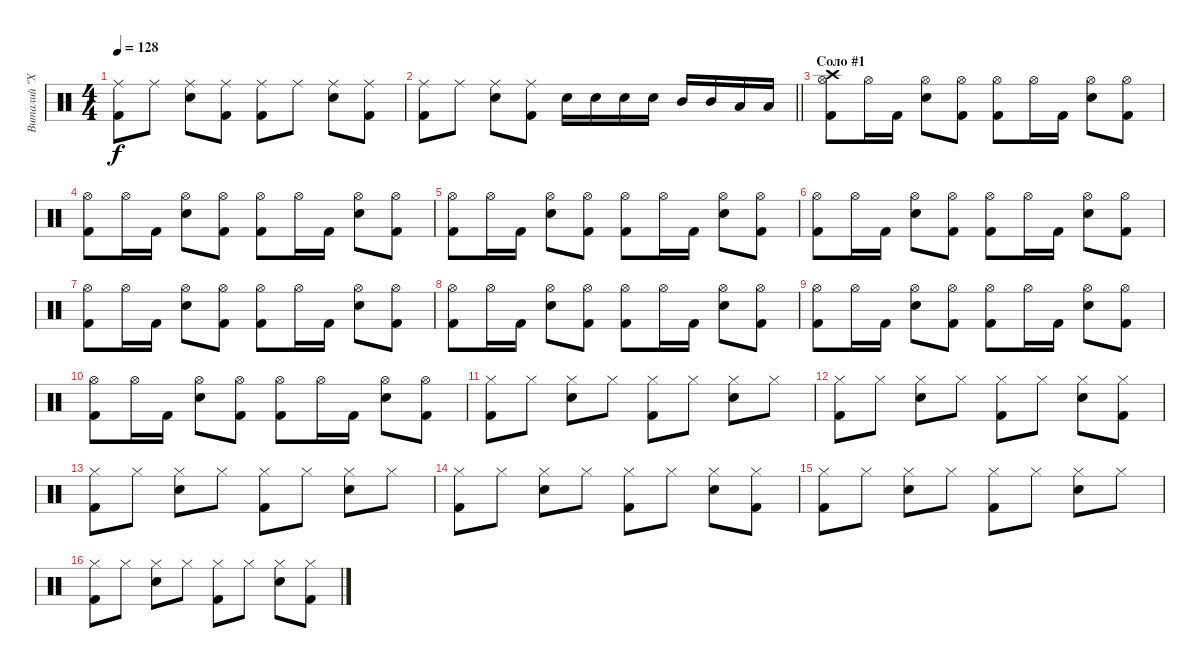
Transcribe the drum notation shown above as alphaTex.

\track ("Виталий \"Хамер\" Лядов" "Виталий \"Х") {instrument percussion}
\staff {score}
\articulation defaults
\ts (4 4)
\tempo 128
\clef neutral
\ks c
("Kick (hit) 2" "Ride (middle)").8{dy f} "Ride (middle)".8 ("Electric Snare (hit)" "Ride (middle)").8 ("Kick (hit) 2" "Ride (middle)").8 ("Kick (hit) 2" "Ride (middle)").8 "Ride (middle)".8 ("Electric Snare (hit)" "Ride (middle)").8 ("Kick (hit) 2" "Ride (middle)").8 |
\barLineRight lightlight
("Kick (hit) 2" "Ride (middle)").8 "Ride (middle)".8 ("Electric Snare (hit)" "Ride (middle)").8 ("Kick (hit) 2" "Ride (middle)").8 "Electric Snare (hit)".16 "Electric Snare (hit)".16 "Electric Snare (hit)".16 "Electric Snare (hit)".16 "Mid Tom (hit)".16 "Mid Tom (hit)".16 "Low Tom (hit)".16 "Low Tom (hit)".16 |
\section ("" "Соло #1")
("Kick (hit) 2" "Hi-Hat (open)" "Crash high (hit)").8 "Hi-Hat (open)".16 "Kick (hit) 2".16 ("Electric Snare (hit)" "Hi-Hat (open)").8 ("Kick (hit) 2" "Hi-Hat (open)").8 ("Kick (hit) 2" "Hi-Hat (open)").8 "Hi-Hat (open)".16 "Kick (hit) 2".16 ("Electric Snare (hit)" "Hi-Hat (open)").8 ("Kick (hit) 2" "Hi-Hat (open)").8 |
("Kick (hit) 2" "Hi-Hat (open)").8 "Hi-Hat (open)".16 "Kick (hit) 2".16 ("Electric Snare (hit)" "Hi-Hat (open)").8 ("Kick (hit) 2" "Hi-Hat (open)").8 ("Kick (hit) 2" "Hi-Hat (open)").8 "Hi-Hat (open)".16 "Kick (hit) 2".16 ("Electric Snare (hit)" "Hi-Hat (open)").8 ("Kick (hit) 2" "Hi-Hat (open)").8 |
("Kick (hit) 2" "Hi-Hat (open)").8 "Hi-Hat (open)".16 "Kick (hit) 2".16 ("Electric Snare (hit)" "Hi-Hat (open)").8 ("Kick (hit) 2" "Hi-Hat (open)").8 ("Kick (hit) 2" "Hi-Hat (open)").8 "Hi-Hat (open)".16 "Kick (hit) 2".16 ("Electric Snare (hit)" "Hi-Hat (open)").8 ("Kick (hit) 2" "Hi-Hat (open)").8 |
("Kick (hit) 2" "Hi-Hat (open)").8 "Hi-Hat (open)".16 "Kick (hit) 2".16 ("Electric Snare (hit)" "Hi-Hat (open)").8 ("Kick (hit) 2" "Hi-Hat (open)").8 ("Kick (hit) 2" "Hi-Hat (open)").8 "Hi-Hat (open)".16 "Kick (hit) 2".16 ("Electric Snare (hit)" "Hi-Hat (open)").8 ("Kick (hit) 2" "Hi-Hat (open)").8 |
("Kick (hit) 2" "Hi-Hat (open)").8 "Hi-Hat (open)".16 "Kick (hit) 2".16 ("Electric Snare (hit)" "Hi-Hat (open)").8 ("Kick (hit) 2" "Hi-Hat (open)").8 ("Kick (hit) 2" "Hi-Hat (open)").8 "Hi-Hat (open)".16 "Kick (hit) 2".16 ("Electric Snare (hit)" "Hi-Hat (open)").8 ("Kick (hit) 2" "Hi-Hat (open)").8 |
("Kick (hit) 2" "Hi-Hat (open)").8 "Hi-Hat (open)".16 "Kick (hit) 2".16 ("Electric Snare (hit)" "Hi-Hat (open)").8 ("Kick (hit) 2" "Hi-Hat (open)").8 ("Kick (hit) 2" "Hi-Hat (open)").8 "Hi-Hat (open)".16 "Kick (hit) 2".16 ("Electric Snare (hit)" "Hi-Hat (open)").8 ("Kick (hit) 2" "Hi-Hat (open)").8 |
("Kick (hit) 2" "Hi-Hat (open)").8 "Hi-Hat (open)".16 "Kick (hit) 2".16 ("Electric Snare (hit)" "Hi-Hat (open)").8 ("Kick (hit) 2" "Hi-Hat (open)").8 ("Kick (hit) 2" "Hi-Hat (open)").8 "Hi-Hat (open)".16 "Kick (hit) 2".16 ("Electric Snare (hit)" "Hi-Hat (open)").8 ("Kick (hit) 2" "Hi-Hat (open)").8 |
("Kick (hit) 2" "Hi-Hat (open)").8 "Hi-Hat (open)".16 "Kick (hit) 2".16 ("Electric Snare (hit)" "Hi-Hat (open)").8 ("Kick (hit) 2" "Hi-Hat (open)").8 ("Kick (hit) 2" "Hi-Hat (open)").8 "Hi-Hat (open)".16 "Kick (hit) 2".16 ("Electric Snare (hit)" "Hi-Hat (open)").8 ("Kick (hit) 2" "Hi-Hat (open)").8 |
("Kick (hit) 2" "Hi-Hat (closed)").8 "Hi-Hat (closed)".8 ("Electric Snare (hit)" "Hi-Hat (closed)").8 "Hi-Hat (closed)".8 ("Kick (hit) 2" "Hi-Hat (closed)").8 "Hi-Hat (closed)".8 ("Electric Snare (hit)" "Hi-Hat (closed)").8 "Hi-Hat (closed)".8 |
("Kick (hit) 2" "Hi-Hat (closed)").8 "Hi-Hat (closed)".8 ("Electric Snare (hit)" "Hi-Hat (closed)").8 "Hi-Hat (closed)".8 ("Kick (hit) 2" "Hi-Hat (closed)").8 "Hi-Hat (closed)".8 ("Electric Snare (hit)" "Hi-Hat (closed)").8 ("Kick (hit) 2" "Hi-Hat (closed)").8 |
("Kick (hit) 2" "Hi-Hat (closed)").8 "Hi-Hat (closed)".8 ("Electric Snare (hit)" "Hi-Hat (closed)").8 "Hi-Hat (closed)".8 ("Kick (hit) 2" "Hi-Hat (closed)").8 "Hi-Hat (closed)".8 ("Electric Snare (hit)" "Hi-Hat (closed)").8 "Hi-Hat (closed)".8 |
("Kick (hit) 2" "Hi-Hat (closed)").8 "Hi-Hat (closed)".8 ("Electric Snare (hit)" "Hi-Hat (closed)").8 "Hi-Hat (closed)".8 ("Kick (hit) 2" "Hi-Hat (closed)").8 "Hi-Hat (closed)".8 ("Electric Snare (hit)" "Hi-Hat (closed)").8 ("Kick (hit) 2" "Hi-Hat (closed)").8 |
("Kick (hit) 2" "Hi-Hat (closed)").8 "Hi-Hat (closed)".8 ("Electric Snare (hit)" "Hi-Hat (closed)").8 "Hi-Hat (closed)".8 ("Kick (hit) 2" "Hi-Hat (closed)").8 "Hi-Hat (closed)".8 ("Electric Snare (hit)" "Hi-Hat (closed)").8 "Hi-Hat (closed)".8 |
("Kick (hit) 2" "Hi-Hat (closed)").8 "Hi-Hat (closed)".8 ("Electric Snare (hit)" "Hi-Hat (closed)").8 "Hi-Hat (closed)".8 ("Kick (hit) 2" "Hi-Hat (closed)").8 "Hi-Hat (closed)".8 ("Electric Snare (hit)" "Hi-Hat (closed)").8 ("Kick (hit) 2" "Hi-Hat (closed)").8
